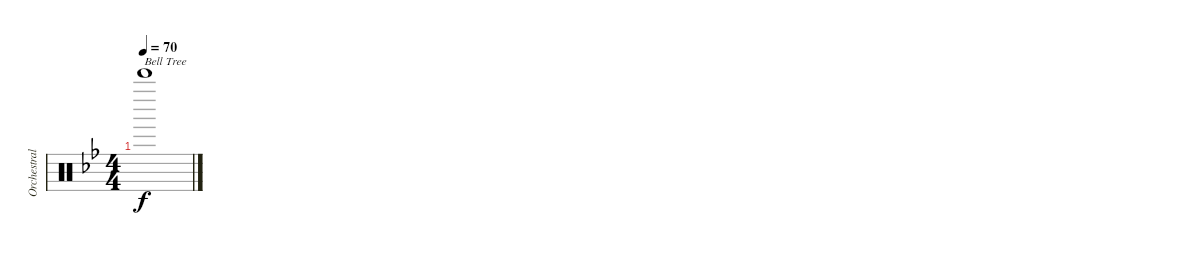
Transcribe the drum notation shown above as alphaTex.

\track ("Orchestral Percussion I" "Orchestral") {instrument percussion}
\staff {score}
\articulation defaults
\ts (4 4)
\tempo 70
\clef neutral
\ks gminor "Bell Tree (hit)".1{txt "Bell Tree" dy f}
